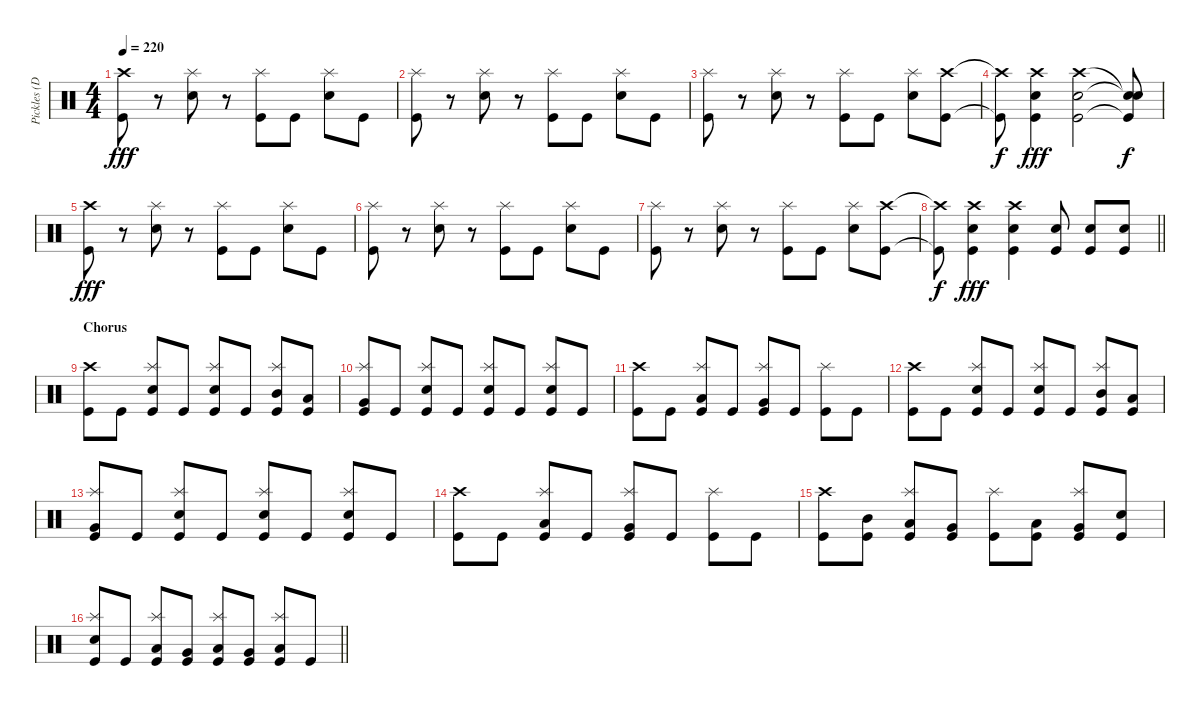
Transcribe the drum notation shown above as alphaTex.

\track ("Pickles (Drums)" "Pickles (D") {instrument percussion}
\staff {score}
\articulation defaults
\ts (4 4)
\tempo 220
\clef neutral
\ks c
("Crash high (hit)" "Kick (hit)").8{dy fff} r.8 ("Splash (hit)" "Electric Snare (hit)").8 r.8 ("Splash (hit)" "Kick (hit)").8 "Kick (hit)".8 ("Splash (hit)" "Electric Snare (hit)").8 "Kick (hit)".8 |
("Splash (hit)" "Kick (hit)").8 r.8 ("Splash (hit)" "Electric Snare (hit)").8 r.8 ("Splash (hit)" "Kick (hit)").8 "Kick (hit)".8 ("Splash (hit)" "Electric Snare (hit)").8 "Kick (hit)".8 |
("Splash (hit)" "Kick (hit)").8 r.8 ("Splash (hit)" "Electric Snare (hit)").8 r.8 ("Splash (hit)" "Kick (hit)").8 "Kick (hit)".8 ("Splash (hit)" "Electric Snare (hit)").8 ("Crash high (hit)" "Kick (hit)").8 |
("Crash high (hit)"{t} "Kick (hit)"{t}).8{dy f} ("Crash high (hit)" "Electric Snare (hit)" "Kick (hit)").4{dy fff} ("Crash high (hit)" "Electric Snare (hit)" "Kick (hit)").2 ("Snare (hit)"{t} "Electric Snare (hit)"{t} "Kick (hit)"{t}).8{dy f} |
("Crash high (hit)" "Kick (hit)").8{dy fff} r.8 ("Splash (hit)" "Electric Snare (hit)").8 r.8 ("Splash (hit)" "Kick (hit)").8 "Kick (hit)".8 ("Splash (hit)" "Electric Snare (hit)").8 "Kick (hit)".8 |
("Splash (hit)" "Kick (hit)").8 r.8 ("Splash (hit)" "Electric Snare (hit)").8 r.8 ("Splash (hit)" "Kick (hit)").8 "Kick (hit)".8 ("Splash (hit)" "Electric Snare (hit)").8 "Kick (hit)".8 |
("Splash (hit)" "Kick (hit)").8 r.8 ("Splash (hit)" "Electric Snare (hit)").8 r.8 ("Splash (hit)" "Kick (hit)").8 "Kick (hit)".8 ("Splash (hit)" "Electric Snare (hit)").8 ("Crash high (hit)" "Kick (hit)").8 |
\barLineRight lightlight
("Crash high (hit)"{t} "Kick (hit)"{t}).8{dy f} ("Crash high (hit)" "Electric Snare (hit)" "Kick (hit)").4{dy fff} ("Crash high (hit)" "Electric Snare (hit)" "Kick (hit)").4 ("Electric Snare (hit)" "Kick (hit)").8 ("Electric Snare (hit)" "Kick (hit)").8 ("Electric Snare (hit)" "Kick (hit)").8 |
\section ("" "Chorus")
("Crash high (hit)" "Kick (hit)").8 "Kick (hit)".8 ("Splash (hit)" "Electric Snare (hit)" "Kick (hit)").8 "Kick (hit)".8 ("Splash (hit)" "Electric Snare (hit)" "Kick (hit)").8 "Kick (hit)".8 ("Splash (hit)" "Mid Tom (hit)" "Kick (hit)").8 ("Low Tom (hit)" "Kick (hit)").8 |
("Splash (hit)" "Very Low Tom (hit)" "Kick (hit)").8 "Kick (hit)".8 ("Splash (hit)" "Electric Snare (hit)" "Kick (hit)").8 "Kick (hit)".8 ("Splash (hit)" "Electric Snare (hit)" "Kick (hit)").8 "Kick (hit)".8 ("Splash (hit)" "Electric Snare (hit)" "Kick (hit)").8 "Kick (hit)".8 |
("Crash high (hit)" "Kick (hit)").8 "Kick (hit)".8 ("Splash (hit)" "Low Tom (hit)" "Kick (hit)").8 "Kick (hit)".8 ("Splash (hit)" "Very Low Tom (hit)" "Kick (hit)").8 "Kick (hit)".8 ("Splash (hit)" "Kick (hit)").8 "Kick (hit)".8 |
("Crash high (hit)" "Kick (hit)").8 "Kick (hit)".8 ("Splash (hit)" "Electric Snare (hit)" "Kick (hit)").8 "Kick (hit)".8 ("Splash (hit)" "Electric Snare (hit)" "Kick (hit)").8 "Kick (hit)".8 ("Splash (hit)" "Mid Tom (hit)" "Kick (hit)").8 ("Low Tom (hit)" "Kick (hit)").8 |
("Splash (hit)" "Very Low Tom (hit)" "Kick (hit)").8 "Kick (hit)".8 ("Splash (hit)" "Electric Snare (hit)" "Kick (hit)").8 "Kick (hit)".8 ("Splash (hit)" "Electric Snare (hit)" "Kick (hit)").8 "Kick (hit)".8 ("Splash (hit)" "Electric Snare (hit)" "Kick (hit)").8 "Kick (hit)".8 |
("Crash high (hit)" "Kick (hit)").8 "Kick (hit)".8 ("Splash (hit)" "Low Tom (hit)" "Kick (hit)").8 "Kick (hit)".8 ("Splash (hit)" "Very Low Tom (hit)" "Kick (hit)").8 "Kick (hit)".8 ("Splash (hit)" "Kick (hit)").8 "Kick (hit)".8 |
("Crash high (hit)" "Kick (hit)").8 ("Mid Tom (hit)" "Kick (hit)").8 ("Splash (hit)" "Low Tom (hit)" "Kick (hit)").8 ("Very Low Tom (hit)" "Kick (hit)").8 ("Splash (hit)" "Kick (hit)").8 ("Low Tom (hit)" "Kick (hit)").8 ("Splash (hit)" "Very Low Tom (hit)" "Kick (hit)").8 ("Electric Snare (hit)" "Kick (hit)").8 |
\barLineRight lightlight
("Splash (hit)" "Electric Snare (hit)" "Kick (hit)").8 "Kick (hit)".8 ("Splash (hit)" "Low Tom (hit)" "Kick (hit)").8 ("Very Low Tom (hit)" "Kick (hit)").8 ("Splash (hit)" "Low Floor Tom (hit)" "Kick (hit)").8 ("Very Low Tom (hit)" "Kick (hit)").8 ("Splash (hit)" "Low Floor Tom (hit)" "Kick (hit)").8 "Kick (hit)".8
